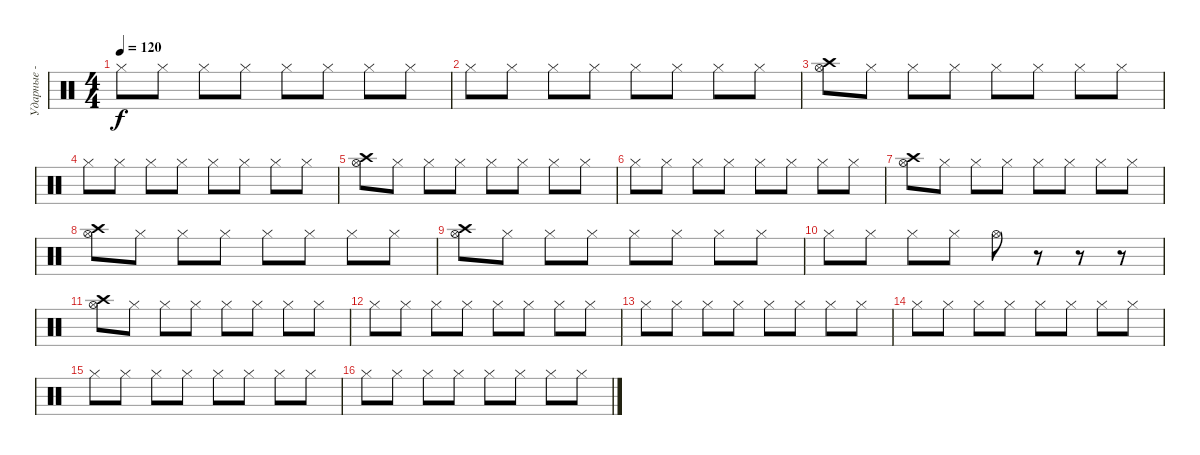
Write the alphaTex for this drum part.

\track ("Ударные - 2" "Ударные - ") {instrument percussion}
\staff {score}
\articulation defaults
\ts (4 4)
\tempo 120
\clef neutral
\ks c "Hi-Hat (closed)".8{dy f} "Hi-Hat (closed)".8 "Hi-Hat (closed)".8 "Hi-Hat (closed)".8 "Hi-Hat (closed)".8 "Hi-Hat (closed)".8 "Hi-Hat (closed)".8 "Hi-Hat (closed)".8
|
"Hi-Hat (closed)".8 "Hi-Hat (closed)".8 "Hi-Hat (closed)".8 "Hi-Hat (closed)".8 "Hi-Hat (closed)".8 "Hi-Hat (closed)".8 "Hi-Hat (closed)".8 "Hi-Hat (closed)".8 |
("Crash high (hit)" "Hi-Hat (open)").8 "Hi-Hat (closed)".8 "Hi-Hat (closed)".8 "Hi-Hat (closed)".8 "Hi-Hat (closed)".8 "Hi-Hat (closed)".8 "Hi-Hat (closed)".8 "Hi-Hat (closed)".8 |
"Hi-Hat (closed)".8 "Hi-Hat (closed)".8 "Hi-Hat (closed)".8 "Hi-Hat (closed)".8 "Hi-Hat (closed)".8 "Hi-Hat (closed)".8 "Hi-Hat (closed)".8 "Hi-Hat (closed)".8 |
("Crash high (hit)" "Hi-Hat (open)").8 "Hi-Hat (closed)".8 "Hi-Hat (closed)".8 "Hi-Hat (closed)".8 "Hi-Hat (closed)".8 "Hi-Hat (closed)".8 "Hi-Hat (closed)".8 "Hi-Hat (closed)".8 |
"Hi-Hat (closed)".8 "Hi-Hat (closed)".8 "Hi-Hat (closed)".8 "Hi-Hat (closed)".8 "Hi-Hat (closed)".8 "Hi-Hat (closed)".8 "Hi-Hat (closed)".8 "Hi-Hat (closed)".8 |
("Crash high (hit)" "Hi-Hat (open)").8 "Hi-Hat (closed)".8 "Hi-Hat (closed)".8 "Hi-Hat (closed)".8 "Hi-Hat (closed)".8 "Hi-Hat (closed)".8 "Hi-Hat (closed)".8 "Hi-Hat (closed)".8 |
("Crash high (hit)" "Hi-Hat (open)").8 "Hi-Hat (closed)".8 "Hi-Hat (closed)".8 "Hi-Hat (closed)".8 "Hi-Hat (closed)".8 "Hi-Hat (closed)".8 "Hi-Hat (closed)".8 "Hi-Hat (closed)".8 |
("Crash high (hit)" "Hi-Hat (open)").8 "Hi-Hat (closed)".8 "Hi-Hat (closed)".8 "Hi-Hat (closed)".8 "Hi-Hat (closed)".8 "Hi-Hat (closed)".8 "Hi-Hat (closed)".8 "Hi-Hat (closed)".8 |
"Hi-Hat (closed)".8 "Hi-Hat (closed)".8 "Hi-Hat (closed)".8 "Hi-Hat (closed)".8 "Hi-Hat (open)".8 r.8 r.8 r.8 |
("Crash high (hit)" "Hi-Hat (open)").8 "Hi-Hat (closed)".8 "Hi-Hat (closed)".8 "Hi-Hat (closed)".8 "Hi-Hat (closed)".8 "Hi-Hat (closed)".8 "Hi-Hat (closed)".8 "Hi-Hat (closed)".8 |
"Hi-Hat (closed)".8 "Hi-Hat (closed)".8 "Hi-Hat (closed)".8 "Hi-Hat (closed)".8 "Hi-Hat (closed)".8 "Hi-Hat (closed)".8 "Hi-Hat (closed)".8 "Hi-Hat (closed)".8 |
"Hi-Hat (closed)".8 "Hi-Hat (closed)".8 "Hi-Hat (closed)".8 "Hi-Hat (closed)".8 "Hi-Hat (closed)".8 "Hi-Hat (closed)".8 "Hi-Hat (closed)".8 "Hi-Hat (closed)".8 |
"Hi-Hat (closed)".8 "Hi-Hat (closed)".8 "Hi-Hat (closed)".8 "Hi-Hat (closed)".8 "Hi-Hat (closed)".8 "Hi-Hat (closed)".8 "Hi-Hat (closed)".8 "Hi-Hat (closed)".8 |
"Hi-Hat (closed)".8 "Hi-Hat (closed)".8 "Hi-Hat (closed)".8 "Hi-Hat (closed)".8 "Hi-Hat (closed)".8 "Hi-Hat (closed)".8 "Hi-Hat (closed)".8 "Hi-Hat (closed)".8 |
"Hi-Hat (closed)".8 "Hi-Hat (closed)".8 "Hi-Hat (closed)".8 "Hi-Hat (closed)".8 "Hi-Hat (closed)".8 "Hi-Hat (closed)".8 "Hi-Hat (closed)".8 "Hi-Hat (closed)".8
